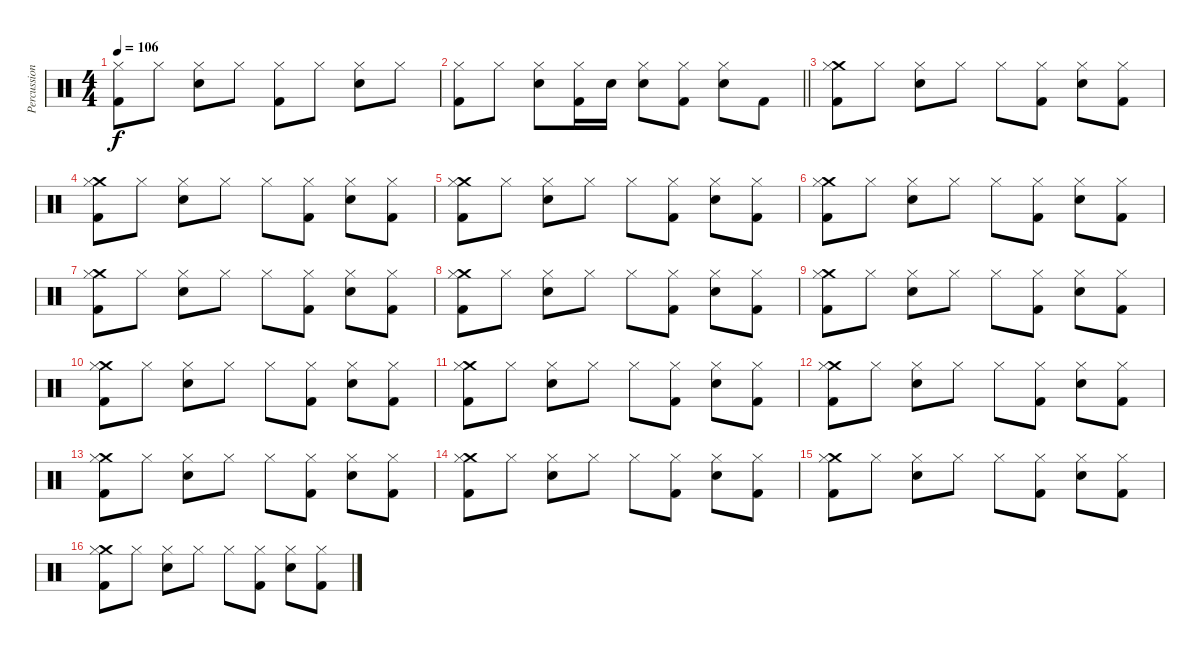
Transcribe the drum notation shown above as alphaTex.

\track ("Percussion" "Percussion") {instrument percussion}
\staff {score}
\articulation defaults
\ts (4 4)
\tempo 106
\clef neutral
\ks c
("Hi-Hat (closed)" "Kick (hit) 2").8{dy f} "Hi-Hat (closed)".8 ("Hi-Hat (closed)" "Electric Snare (hit)").8 "Hi-Hat (closed)".8 ("Hi-Hat (closed)" "Kick (hit) 2").8 "Hi-Hat (closed)".8 ("Hi-Hat (closed)" "Electric Snare (hit)").8 "Hi-Hat (closed)".8 |
\barLineRight lightlight
("Hi-Hat (closed)" "Kick (hit) 2").8 "Hi-Hat (closed)".8 ("Hi-Hat (closed)" "Electric Snare (hit)").8 ("Hi-Hat (closed)" "Kick (hit) 2").16 "Electric Snare (hit)".16 ("Hi-Hat (closed)" "Electric Snare (hit)").8 ("Hi-Hat (closed)" "Kick (hit) 2").8 ("Hi-Hat (closed)" "Electric Snare (hit)").8 "Kick (hit) 2".8 |
("Crash medium (hit)" "Hi-Hat (closed)" "Kick (hit) 2").8 "Hi-Hat (closed)".8 ("Hi-Hat (closed)" "Electric Snare (hit)").8 "Hi-Hat (closed)".8 "Hi-Hat (closed)".8 ("Hi-Hat (closed)" "Kick (hit) 2").8 ("Hi-Hat (closed)" "Electric Snare (hit)").8 ("Hi-Hat (closed)" "Kick (hit) 2").8 |
("Crash medium (hit)" "Hi-Hat (closed)" "Kick (hit) 2").8 "Hi-Hat (closed)".8 ("Hi-Hat (closed)" "Electric Snare (hit)").8 "Hi-Hat (closed)".8 "Hi-Hat (closed)".8 ("Hi-Hat (closed)" "Kick (hit) 2").8 ("Hi-Hat (closed)" "Electric Snare (hit)").8 ("Hi-Hat (closed)" "Kick (hit) 2").8 |
("Crash medium (hit)" "Hi-Hat (closed)" "Kick (hit) 2").8 "Hi-Hat (closed)".8 ("Hi-Hat (closed)" "Electric Snare (hit)").8 "Hi-Hat (closed)".8 "Hi-Hat (closed)".8 ("Hi-Hat (closed)" "Kick (hit) 2").8 ("Hi-Hat (closed)" "Electric Snare (hit)").8 ("Hi-Hat (closed)" "Kick (hit) 2").8 |
("Crash medium (hit)" "Hi-Hat (closed)" "Kick (hit) 2").8 "Hi-Hat (closed)".8 ("Hi-Hat (closed)" "Electric Snare (hit)").8 "Hi-Hat (closed)".8 "Hi-Hat (closed)".8 ("Hi-Hat (closed)" "Kick (hit) 2").8 ("Hi-Hat (closed)" "Electric Snare (hit)").8 ("Hi-Hat (closed)" "Kick (hit) 2").8 |
("Crash medium (hit)" "Hi-Hat (closed)" "Kick (hit) 2").8 "Hi-Hat (closed)".8 ("Hi-Hat (closed)" "Electric Snare (hit)").8 "Hi-Hat (closed)".8 "Hi-Hat (closed)".8 ("Hi-Hat (closed)" "Kick (hit) 2").8 ("Hi-Hat (closed)" "Electric Snare (hit)").8 ("Hi-Hat (closed)" "Kick (hit) 2").8 |
("Crash medium (hit)" "Hi-Hat (closed)" "Kick (hit) 2").8 "Hi-Hat (closed)".8 ("Hi-Hat (closed)" "Electric Snare (hit)").8 "Hi-Hat (closed)".8 "Hi-Hat (closed)".8 ("Hi-Hat (closed)" "Kick (hit) 2").8 ("Hi-Hat (closed)" "Electric Snare (hit)").8 ("Hi-Hat (closed)" "Kick (hit) 2").8 |
("Crash medium (hit)" "Hi-Hat (closed)" "Kick (hit) 2").8 "Hi-Hat (closed)".8 ("Hi-Hat (closed)" "Electric Snare (hit)").8 "Hi-Hat (closed)".8 "Hi-Hat (closed)".8 ("Hi-Hat (closed)" "Kick (hit) 2").8 ("Hi-Hat (closed)" "Electric Snare (hit)").8 ("Hi-Hat (closed)" "Kick (hit) 2").8 |
("Crash medium (hit)" "Hi-Hat (closed)" "Kick (hit) 2").8 "Hi-Hat (closed)".8 ("Hi-Hat (closed)" "Electric Snare (hit)").8 "Hi-Hat (closed)".8 "Hi-Hat (closed)".8 ("Hi-Hat (closed)" "Kick (hit) 2").8 ("Hi-Hat (closed)" "Electric Snare (hit)").8 ("Hi-Hat (closed)" "Kick (hit) 2").8 |
("Crash medium (hit)" "Hi-Hat (closed)" "Kick (hit) 2").8 "Hi-Hat (closed)".8 ("Hi-Hat (closed)" "Electric Snare (hit)").8 "Hi-Hat (closed)".8 "Hi-Hat (closed)".8 ("Hi-Hat (closed)" "Kick (hit) 2").8 ("Hi-Hat (closed)" "Electric Snare (hit)").8 ("Hi-Hat (closed)" "Kick (hit) 2").8 |
("Crash medium (hit)" "Hi-Hat (closed)" "Kick (hit) 2").8 "Hi-Hat (closed)".8 ("Hi-Hat (closed)" "Electric Snare (hit)").8 "Hi-Hat (closed)".8 "Hi-Hat (closed)".8 ("Hi-Hat (closed)" "Kick (hit) 2").8 ("Hi-Hat (closed)" "Electric Snare (hit)").8 ("Hi-Hat (closed)" "Kick (hit) 2").8 |
("Crash medium (hit)" "Hi-Hat (closed)" "Kick (hit) 2").8 "Hi-Hat (closed)".8 ("Hi-Hat (closed)" "Electric Snare (hit)").8 "Hi-Hat (closed)".8 "Hi-Hat (closed)".8 ("Hi-Hat (closed)" "Kick (hit) 2").8 ("Hi-Hat (closed)" "Electric Snare (hit)").8 ("Hi-Hat (closed)" "Kick (hit) 2").8 |
("Crash medium (hit)" "Hi-Hat (closed)" "Kick (hit) 2").8 "Hi-Hat (closed)".8 ("Hi-Hat (closed)" "Electric Snare (hit)").8 "Hi-Hat (closed)".8 "Hi-Hat (closed)".8 ("Hi-Hat (closed)" "Kick (hit) 2").8 ("Hi-Hat (closed)" "Electric Snare (hit)").8 ("Hi-Hat (closed)" "Kick (hit) 2").8 |
("Crash medium (hit)" "Hi-Hat (closed)" "Kick (hit) 2").8 "Hi-Hat (closed)".8 ("Hi-Hat (closed)" "Electric Snare (hit)").8 "Hi-Hat (closed)".8 "Hi-Hat (closed)".8 ("Hi-Hat (closed)" "Kick (hit) 2").8 ("Hi-Hat (closed)" "Electric Snare (hit)").8 ("Hi-Hat (closed)" "Kick (hit) 2").8 |
("Crash medium (hit)" "Hi-Hat (closed)" "Kick (hit) 2").8 "Hi-Hat (closed)".8 ("Hi-Hat (closed)" "Electric Snare (hit)").8 "Hi-Hat (closed)".8 "Hi-Hat (closed)".8 ("Hi-Hat (closed)" "Kick (hit) 2").8 ("Hi-Hat (closed)" "Electric Snare (hit)").8 ("Hi-Hat (closed)" "Kick (hit) 2").8
